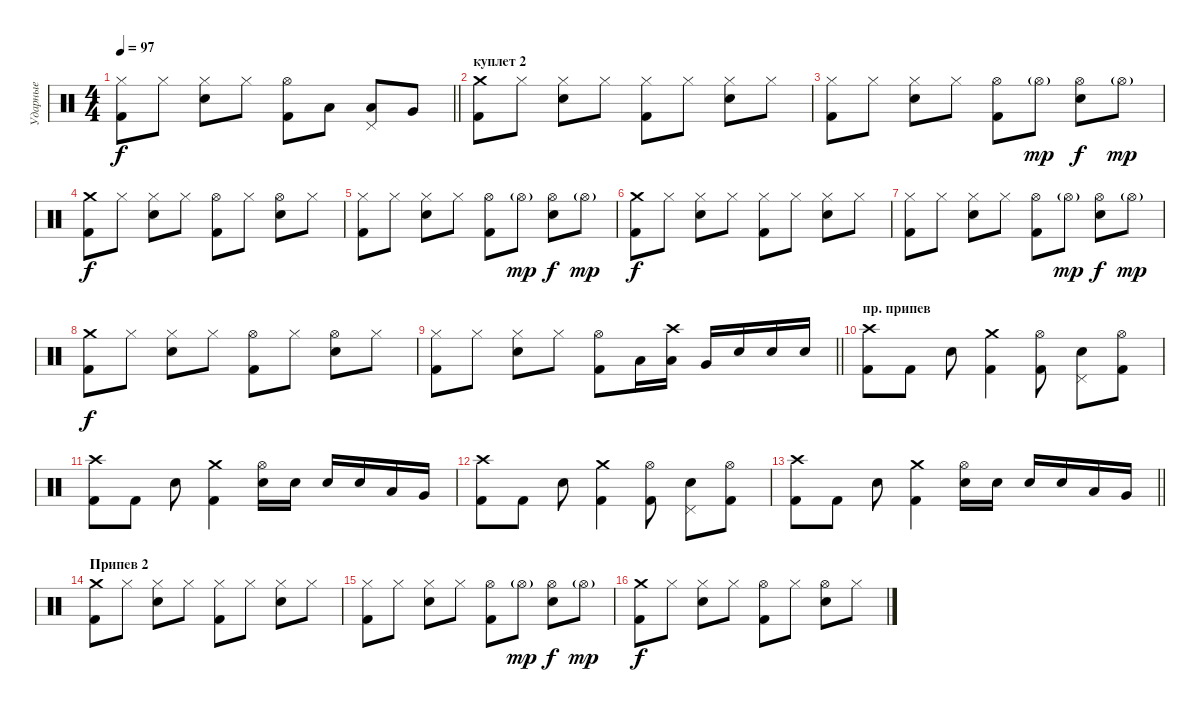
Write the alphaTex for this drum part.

\track ("Ударные" "Ударные") {instrument percussion}
\staff {score}
\articulation defaults
\ts (4 4)
\tempo 97
\clef neutral
\barLineRight lightlight
\ks c
("Kick (hit) 2" "Hi-Hat (closed)").8{dy f} "Hi-Hat (closed)".8 ("Snare (hit) 2" "Hi-Hat (closed)").8 "Hi-Hat (closed)".8 ("Kick (hit) 2" "Hi-Hat (open)").8 "Low Tom (hit)".8 ("Pedal Hi-Hat (hit)" "Low Tom (hit)").8 "Very Low Tom (hit)".8 |
\section ("" "куплет 2")
("Crash medium (hit)" "Kick (hit) 2").8 "Hi-Hat (closed)".8 ("Snare (hit) 2" "Hi-Hat (closed)").8 "Hi-Hat (closed)".8 ("Kick (hit) 2" "Hi-Hat (closed)").8 "Hi-Hat (closed)".8 ("Snare (hit) 2" "Hi-Hat (closed)").8 "Hi-Hat (closed)".8 |
("Kick (hit) 2" "Hi-Hat (closed)").8 "Hi-Hat (closed)".8 ("Snare (hit) 2" "Hi-Hat (closed)").8 "Hi-Hat (closed)".8 ("Kick (hit) 2" "Hi-Hat (open)").8 "Hi-Hat (open)"{g}.8{dy mp} ("Snare (hit) 2" "Hi-Hat (open)").8{dy f} "Hi-Hat (open)"{g}.8{dy mp} |
("Crash medium (hit)" "Kick (hit) 2").8{dy f} "Hi-Hat (closed)".8 ("Snare (hit) 2" "Hi-Hat (closed)").8 "Hi-Hat (closed)".8 ("Kick (hit) 2" "Hi-Hat (open)").8 "Hi-Hat (closed)".8 ("Snare (hit) 2" "Hi-Hat (open)").8 "Hi-Hat (closed)".8 |
("Kick (hit) 2" "Hi-Hat (closed)").8 "Hi-Hat (closed)".8 ("Snare (hit) 2" "Hi-Hat (closed)").8 "Hi-Hat (closed)".8 ("Kick (hit) 2" "Hi-Hat (open)").8 "Hi-Hat (open)"{g}.8{dy mp} ("Snare (hit) 2" "Hi-Hat (open)").8{dy f} "Hi-Hat (open)"{g}.8{dy mp} |
("Crash medium (hit)" "Kick (hit) 2").8{dy f} "Hi-Hat (closed)".8 ("Snare (hit) 2" "Hi-Hat (closed)").8 "Hi-Hat (closed)".8 ("Kick (hit) 2" "Hi-Hat (closed)").8 "Hi-Hat (closed)".8 ("Snare (hit) 2" "Hi-Hat (closed)").8 "Hi-Hat (closed)".8 |
("Kick (hit) 2" "Hi-Hat (closed)").8 "Hi-Hat (closed)".8 ("Snare (hit) 2" "Hi-Hat (closed)").8 "Hi-Hat (closed)".8 ("Kick (hit) 2" "Hi-Hat (open)").8 "Hi-Hat (open)"{g}.8{dy mp} ("Snare (hit) 2" "Hi-Hat (open)").8{dy f} "Hi-Hat (open)"{g}.8{dy mp} |
("Crash medium (hit)" "Kick (hit) 2").8{dy f} "Hi-Hat (closed)".8 ("Snare (hit) 2" "Hi-Hat (closed)").8 "Hi-Hat (closed)".8 ("Kick (hit) 2" "Hi-Hat (open)").8 "Hi-Hat (closed)".8 ("Snare (hit) 2" "Hi-Hat (open)").8 "Hi-Hat (closed)".8 |
\barLineRight lightlight
("Kick (hit) 2" "Hi-Hat (closed)").8 "Hi-Hat (closed)".8 ("Snare (hit) 2" "Hi-Hat (closed)").8 "Hi-Hat (closed)".8 ("Kick (hit) 2" "Hi-Hat (open)").8 "Low Tom (hit)".16 ("Crash high (hit)" "Low Tom (hit)").16 "Very Low Tom (hit)".16 "Snare (hit) 2".16 "Snare (hit) 2".16 "Snare (hit) 2".16 |
\section ("" "пр. припев")
("Crash high (hit)" "Kick (hit) 2").8 "Kick (hit) 2".8 "Snare (hit) 2".8 ("Crash medium (hit)" "Kick (hit) 2").4 ("Hi-Hat (open)" "Kick (hit) 2").8 ("Pedal Hi-Hat (hit)" "Snare (hit) 2").8 ("Hi-Hat (open)" "Kick (hit) 2").8 |
("Crash high (hit)" "Kick (hit) 2").8 "Kick (hit) 2".8 "Snare (hit) 2".8 ("Crash medium (hit)" "Kick (hit) 2").4 ("Hi-Hat (open)" "Snare (hit) 2").16 "Snare (hit) 2".16 "Snare (hit) 2".16 "Snare (hit) 2".16 "Low Tom (hit)".16 "Very Low Tom (hit)".16 |
("Crash high (hit)" "Kick (hit) 2").8 "Kick (hit) 2".8 "Snare (hit) 2".8 ("Crash medium (hit)" "Kick (hit) 2").4 ("Hi-Hat (open)" "Kick (hit) 2").8 ("Pedal Hi-Hat (hit)" "Snare (hit) 2").8 ("Hi-Hat (open)" "Kick (hit) 2").8 |
\barLineRight lightlight
("Crash high (hit)" "Kick (hit) 2").8 "Kick (hit) 2".8 "Snare (hit) 2".8 ("Crash medium (hit)" "Kick (hit) 2").4 ("Hi-Hat (open)" "Snare (hit) 2").16 "Snare (hit) 2".16 "Snare (hit) 2".16 "Snare (hit) 2".16 "Low Tom (hit)".16 "Very Low Tom (hit)".16 |
\section ("" "Припев 2")
("Crash medium (hit)" "Kick (hit) 2").8 "Hi-Hat (closed)".8 ("Snare (hit) 2" "Hi-Hat (closed)").8 "Hi-Hat (closed)".8 ("Kick (hit) 2" "Hi-Hat (closed)").8 "Hi-Hat (closed)".8 ("Snare (hit) 2" "Hi-Hat (closed)").8 "Hi-Hat (closed)".8 |
("Kick (hit) 2" "Hi-Hat (closed)").8 "Hi-Hat (closed)".8 ("Snare (hit) 2" "Hi-Hat (closed)").8 "Hi-Hat (closed)".8 ("Kick (hit) 2" "Hi-Hat (open)").8 "Hi-Hat (open)"{g}.8{dy mp} ("Snare (hit) 2" "Hi-Hat (open)").8{dy f} "Hi-Hat (open)"{g}.8{dy mp} |
("Crash medium (hit)" "Kick (hit) 2").8{dy f} "Hi-Hat (closed)".8 ("Snare (hit) 2" "Hi-Hat (closed)").8 "Hi-Hat (closed)".8 ("Kick (hit) 2" "Hi-Hat (open)").8 "Hi-Hat (closed)".8 ("Snare (hit) 2" "Hi-Hat (open)").8 "Hi-Hat (closed)".8
